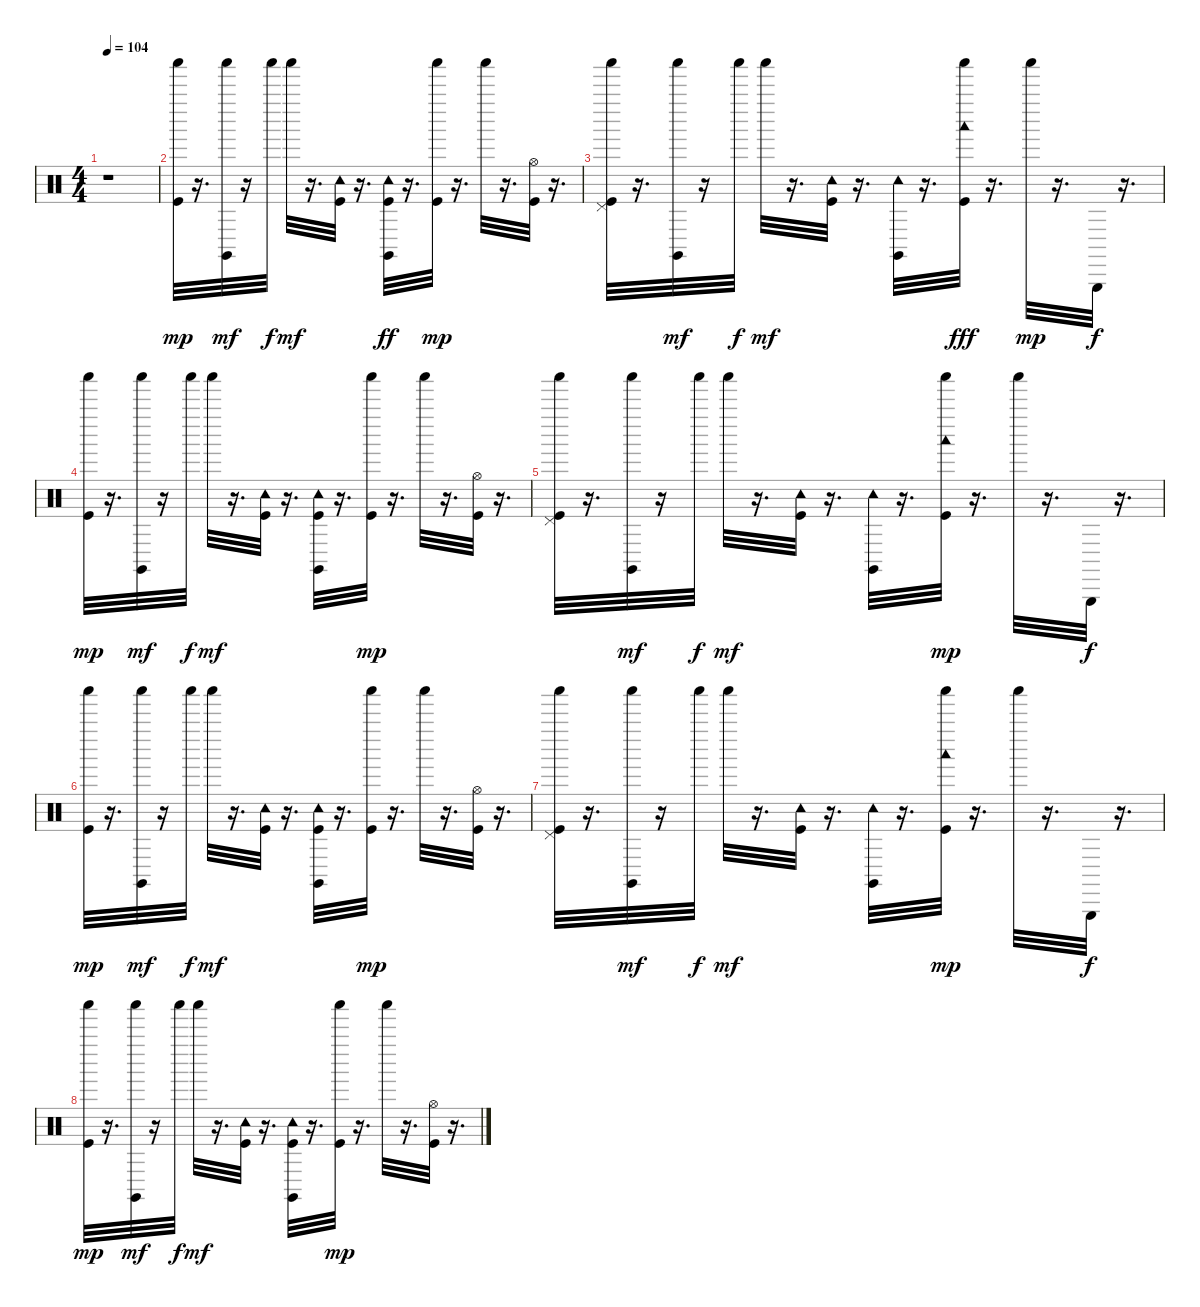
\track "" {instrument percussion}
\staff {score}
\articulation defaults
\ts (4 4)
\tempo 104
\clef neutral
\ks c
r.1{dy mp} |
("Shaker (hit)" "Kick (hit)").32 r.16{d} ("Claves (hit)" "Shaker (hit)").32{dy mf} r.16 "Shaker (hit)".32{dy f} "Shaker (hit)".32{dy mf} r.16{d} ("Kick (hit)" "Tambourine (hit)").32 r.16{d} ("Tambourine (hit)" "Kick (hit)" "Claves (hit)").32{dy ff} r.16{d} ("Shaker (hit)" "Kick (hit)").32{dy mp} r.16{d} "Shaker (hit)".32 r.16{d} ("Hi-Hat (open)" "Kick (hit)").32 r.16{d} |
("Pedal Hi-Hat (hit)" "Kick (hit)" "Shaker (hit)").32 r.16{d} ("Claves (hit)" "Shaker (hit)").32{dy mf} r.16 "Shaker (hit)".32{dy f} "Shaker (hit)".32{dy mf} r.16{d} ("Kick (hit)" "Tambourine (hit)").32 r.16{d} ("Claves (hit)" "Tambourine (hit)").32 r.16{d} ("Kick (hit)" "Shaker (hit)" "Woodblock low (hit)").32{dy fff} r.16{d} "Shaker (hit)".32{dy mp} r.16{d} "Triangle (hit)".32{dy f} r.16{d} |
("Shaker (hit)" "Kick (hit)").32{dy mp} r.16{d} ("Claves (hit)" "Shaker (hit)").32{dy mf} r.16 "Shaker (hit)".32{dy f} "Shaker (hit)".32{dy mf} r.16{d} ("Kick (hit)" "Tambourine (hit)").32 r.16{d} ("Claves (hit)" "Tambourine (hit)" "Kick (hit)").32 r.16{d} ("Shaker (hit)" "Kick (hit)").32{dy mp} r.16{d} "Shaker (hit)".32 r.16{d} ("Hi-Hat (open)" "Kick (hit)").32 r.16{d} |
("Pedal Hi-Hat (hit)" "Kick (hit)" "Shaker (hit)").32 r.16{d} ("Claves (hit)" "Shaker (hit)").32{dy mf} r.16 "Shaker (hit)".32{dy f} "Shaker (hit)".32{dy mf} r.16{d} ("Kick (hit)" "Tambourine (hit)").32 r.16{d} ("Claves (hit)" "Tambourine (hit)").32 r.16{d} ("Woodblock low (hit)" "Kick (hit)" "Shaker (hit)").32{dy mp} r.16{d} "Shaker (hit)".32 r.16{d} "Triangle (hit)".32{dy f} r.16{d} |
("Shaker (hit)" "Kick (hit)").32{dy mp} r.16{d} ("Claves (hit)" "Shaker (hit)").32{dy mf} r.16 "Shaker (hit)".32{dy f} "Shaker (hit)".32{dy mf} r.16{d} ("Kick (hit)" "Tambourine (hit)").32 r.16{d} ("Claves (hit)" "Tambourine (hit)" "Kick (hit)").32 r.16{d} ("Shaker (hit)" "Kick (hit)").32{dy mp} r.16{d} "Shaker (hit)".32 r.16{d} ("Hi-Hat (open)" "Kick (hit)").32 r.16{d} |
("Pedal Hi-Hat (hit)" "Kick (hit)" "Shaker (hit)").32 r.16{d} ("Claves (hit)" "Shaker (hit)").32{dy mf} r.16 "Shaker (hit)".32{dy f} "Shaker (hit)".32{dy mf} r.16{d} ("Kick (hit)" "Tambourine (hit)").32 r.16{d} ("Claves (hit)" "Tambourine (hit)").32 r.16{d} ("Woodblock low (hit)" "Kick (hit)" "Shaker (hit)").32{dy mp} r.16{d} "Shaker (hit)".32 r.16{d} "Triangle (hit)".32{dy f} r.16{d} |
("Shaker (hit)" "Kick (hit)").32{dy mp} r.16{d} ("Claves (hit)" "Shaker (hit)").32{dy mf} r.16 "Shaker (hit)".32{dy f} "Shaker (hit)".32{dy mf} r.16{d} ("Kick (hit)" "Tambourine (hit)").32 r.16{d} ("Claves (hit)" "Tambourine (hit)" "Kick (hit)").32 r.16{d} ("Shaker (hit)" "Kick (hit)").32{dy mp} r.16{d} "Shaker (hit)".32 r.16{d} ("Hi-Hat (open)" "Kick (hit)").32 r.16{d}
